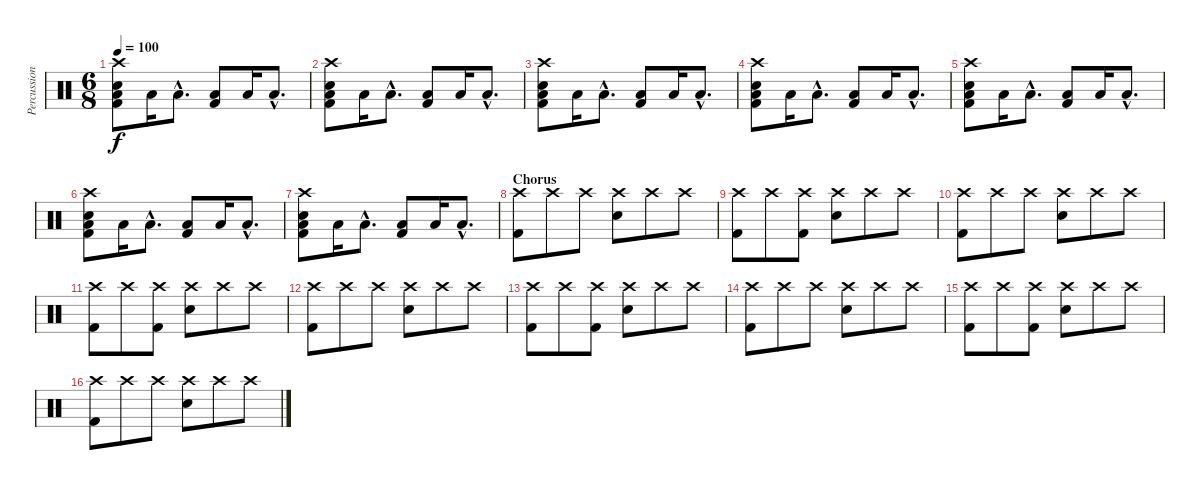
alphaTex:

\track ("Percussion" "Percussion") {instrument percussion}
\staff {score}
\articulation defaults
\ts (6 8)
\tempo 100
\clef neutral
\ks c
("Crash high (hit)" "Electric Snare (hit)" "Low Floor Tom (hit)" "Kick (hit) 2").8{dy f} "Low Floor Tom (hit)".16 "Low Floor Tom (hit)"{hac}.8{d} ("Low Floor Tom (hit)" "Kick (hit) 2").8 "Low Floor Tom (hit)".16 "Low Floor Tom (hit)"{hac}.8{d} |
("Crash high (hit)" "Electric Snare (hit)" "Low Floor Tom (hit)" "Kick (hit) 2").8 "Low Floor Tom (hit)".16 "Low Floor Tom (hit)"{hac}.8{d} ("Low Floor Tom (hit)" "Kick (hit) 2").8 "Low Floor Tom (hit)".16 "Low Floor Tom (hit)"{hac}.8{d} |
("Crash high (hit)" "Electric Snare (hit)" "Low Floor Tom (hit)" "Kick (hit) 2").8 "Low Floor Tom (hit)".16 "Low Floor Tom (hit)"{hac}.8{d} ("Low Floor Tom (hit)" "Kick (hit) 2").8 "Low Floor Tom (hit)".16 "Low Floor Tom (hit)"{hac}.8{d} |
("Crash high (hit)" "Electric Snare (hit)" "Low Floor Tom (hit)" "Kick (hit) 2").8 "Low Floor Tom (hit)".16 "Low Floor Tom (hit)"{hac}.8{d} ("Low Floor Tom (hit)" "Kick (hit) 2").8 "Low Floor Tom (hit)".16 "Low Floor Tom (hit)"{hac}.8{d} |
("Crash high (hit)" "Electric Snare (hit)" "Low Floor Tom (hit)" "Kick (hit) 2").8 "Low Floor Tom (hit)".16 "Low Floor Tom (hit)"{hac}.8{d} ("Low Floor Tom (hit)" "Kick (hit) 2").8 "Low Floor Tom (hit)".16 "Low Floor Tom (hit)"{hac}.8{d} |
("Crash high (hit)" "Electric Snare (hit)" "Low Floor Tom (hit)" "Kick (hit) 2").8 "Low Floor Tom (hit)".16 "Low Floor Tom (hit)"{hac}.8{d} ("Low Floor Tom (hit)" "Kick (hit) 2").8 "Low Floor Tom (hit)".16 "Low Floor Tom (hit)"{hac}.8{d} |
("Crash high (hit)" "Electric Snare (hit)" "Low Floor Tom (hit)" "Kick (hit) 2").8 "Low Floor Tom (hit)".16 "Low Floor Tom (hit)"{hac}.8{d} ("Low Floor Tom (hit)" "Kick (hit) 2").8 "Low Floor Tom (hit)".16 "Low Floor Tom (hit)"{hac}.8{d} |
\section ("" "Chorus")
("Crash high (hit)" "Kick (hit) 2").8 "Crash high (hit)".8 "Crash high (hit)".8 ("Crash high (hit)" "Electric Snare (hit)").8 "Crash high (hit)".8 "Crash high (hit)".8 |
("Crash high (hit)" "Kick (hit) 2").8 "Crash high (hit)".8 ("Crash high (hit)" "Kick (hit) 2").8 ("Crash high (hit)" "Electric Snare (hit)").8 "Crash high (hit)".8 "Crash high (hit)".8 |
("Crash high (hit)" "Kick (hit) 2").8 "Crash high (hit)".8 "Crash high (hit)".8 ("Crash high (hit)" "Electric Snare (hit)").8 "Crash high (hit)".8 "Crash high (hit)".8 |
("Crash high (hit)" "Kick (hit) 2").8 "Crash high (hit)".8 ("Crash high (hit)" "Kick (hit) 2").8 ("Crash high (hit)" "Electric Snare (hit)").8 "Crash high (hit)".8 "Crash high (hit)".8 |
("Crash high (hit)" "Kick (hit) 2").8 "Crash high (hit)".8 "Crash high (hit)".8 ("Crash high (hit)" "Electric Snare (hit)").8 "Crash high (hit)".8 "Crash high (hit)".8 |
("Crash high (hit)" "Kick (hit) 2").8 "Crash high (hit)".8 ("Crash high (hit)" "Kick (hit) 2").8 ("Crash high (hit)" "Electric Snare (hit)").8 "Crash high (hit)".8 "Crash high (hit)".8 |
("Crash high (hit)" "Kick (hit) 2").8 "Crash high (hit)".8 "Crash high (hit)".8 ("Crash high (hit)" "Electric Snare (hit)").8 "Crash high (hit)".8 "Crash high (hit)".8 |
("Crash high (hit)" "Kick (hit) 2").8 "Crash high (hit)".8 ("Crash high (hit)" "Kick (hit) 2").8 ("Crash high (hit)" "Electric Snare (hit)").8 "Crash high (hit)".8 "Crash high (hit)".8 |
("Crash high (hit)" "Kick (hit) 2").8 "Crash high (hit)".8 "Crash high (hit)".8 ("Crash high (hit)" "Electric Snare (hit)").8 "Crash high (hit)".8 "Crash high (hit)".8
